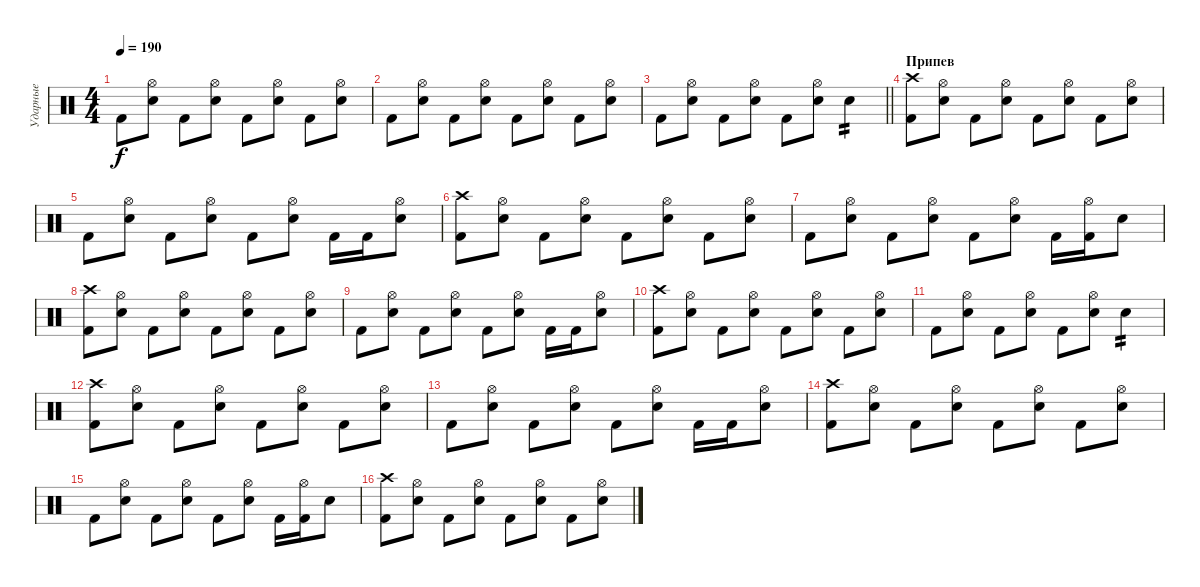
\track ("Ударные" "Ударные") {instrument percussion}
\staff {score}
\articulation defaults
\ts (4 4)
\tempo 190
\clef neutral
\ks c "Kick (hit) 2".8{dy f}
("Hi-Hat (open)" "Electric Snare (hit)").8 "Kick (hit) 2".8 ("Hi-Hat (open)" "Electric Snare (hit)").8 "Kick (hit) 2".8 ("Hi-Hat (open)" "Electric Snare (hit)").8 "Kick (hit) 2".8 ("Hi-Hat (open)" "Electric Snare (hit)").8 |
"Kick (hit) 2".8 ("Hi-Hat (open)" "Electric Snare (hit)").8 "Kick (hit) 2".8 ("Hi-Hat (open)" "Electric Snare (hit)").8 "Kick (hit) 2".8 ("Hi-Hat (open)" "Electric Snare (hit)").8 "Kick (hit) 2".8 ("Hi-Hat (open)" "Electric Snare (hit)").8 |
\barLineRight lightlight "Kick (hit) 2".8
("Hi-Hat (open)" "Electric Snare (hit)").8 "Kick (hit) 2".8 ("Hi-Hat (open)" "Electric Snare (hit)").8 "Kick (hit) 2".8 ("Hi-Hat (open)" "Electric Snare (hit)").8 "Electric Snare (hit)".4{tp 2} |
\section ("" "Припев")
("Crash high (hit)" "Kick (hit) 2").8 ("Hi-Hat (open)" "Electric Snare (hit)").8 "Kick (hit) 2".8 ("Hi-Hat (open)" "Electric Snare (hit)").8 "Kick (hit) 2".8 ("Hi-Hat (open)" "Electric Snare (hit)").8 "Kick (hit) 2".8 ("Hi-Hat (open)" "Electric Snare (hit)").8 |
"Kick (hit) 2".8 ("Hi-Hat (open)" "Electric Snare (hit)").8 "Kick (hit) 2".8 ("Hi-Hat (open)" "Electric Snare (hit)").8 "Kick (hit) 2".8 ("Hi-Hat (open)" "Electric Snare (hit)").8 "Kick (hit) 2".16 "Kick (hit) 2".16 ("Hi-Hat (open)" "Electric Snare (hit)").8 |
("Crash high (hit)" "Kick (hit) 2").8 ("Hi-Hat (open)" "Electric Snare (hit)").8 "Kick (hit) 2".8 ("Hi-Hat (open)" "Electric Snare (hit)").8 "Kick (hit) 2".8 ("Hi-Hat (open)" "Electric Snare (hit)").8 "Kick (hit) 2".8 ("Hi-Hat (open)" "Electric Snare (hit)").8 |
"Kick (hit) 2".8 ("Hi-Hat (open)" "Electric Snare (hit)").8 "Kick (hit) 2".8 ("Hi-Hat (open)" "Electric Snare (hit)").8 "Kick (hit) 2".8 ("Hi-Hat (open)" "Electric Snare (hit)").8 "Kick (hit) 2".16 ("Hi-Hat (open)" "Kick (hit) 2").16 "Electric Snare (hit)".8 |
("Crash high (hit)" "Kick (hit) 2").8 ("Hi-Hat (open)" "Electric Snare (hit)").8 "Kick (hit) 2".8 ("Hi-Hat (open)" "Electric Snare (hit)").8 "Kick (hit) 2".8 ("Hi-Hat (open)" "Electric Snare (hit)").8 "Kick (hit) 2".8 ("Hi-Hat (open)" "Electric Snare (hit)").8 |
"Kick (hit) 2".8 ("Hi-Hat (open)" "Electric Snare (hit)").8 "Kick (hit) 2".8 ("Hi-Hat (open)" "Electric Snare (hit)").8 "Kick (hit) 2".8 ("Hi-Hat (open)" "Electric Snare (hit)").8 "Kick (hit) 2".16 "Kick (hit) 2".16 ("Hi-Hat (open)" "Electric Snare (hit)").8 |
("Crash high (hit)" "Kick (hit) 2").8 ("Hi-Hat (open)" "Electric Snare (hit)").8 "Kick (hit) 2".8 ("Hi-Hat (open)" "Electric Snare (hit)").8 "Kick (hit) 2".8 ("Hi-Hat (open)" "Electric Snare (hit)").8 "Kick (hit) 2".8 ("Hi-Hat (open)" "Electric Snare (hit)").8 |
"Kick (hit) 2".8 ("Hi-Hat (open)" "Electric Snare (hit)").8 "Kick (hit) 2".8 ("Hi-Hat (open)" "Electric Snare (hit)").8 "Kick (hit) 2".8 ("Hi-Hat (open)" "Electric Snare (hit)").8 "Electric Snare (hit)".4{tp 2} |
("Crash high (hit)" "Kick (hit) 2").8 ("Hi-Hat (open)" "Electric Snare (hit)").8 "Kick (hit) 2".8 ("Hi-Hat (open)" "Electric Snare (hit)").8 "Kick (hit) 2".8 ("Hi-Hat (open)" "Electric Snare (hit)").8 "Kick (hit) 2".8 ("Hi-Hat (open)" "Electric Snare (hit)").8 |
"Kick (hit) 2".8 ("Hi-Hat (open)" "Electric Snare (hit)").8 "Kick (hit) 2".8 ("Hi-Hat (open)" "Electric Snare (hit)").8 "Kick (hit) 2".8 ("Hi-Hat (open)" "Electric Snare (hit)").8 "Kick (hit) 2".16 "Kick (hit) 2".16 ("Hi-Hat (open)" "Electric Snare (hit)").8 |
("Crash high (hit)" "Kick (hit) 2").8 ("Hi-Hat (open)" "Electric Snare (hit)").8 "Kick (hit) 2".8 ("Hi-Hat (open)" "Electric Snare (hit)").8 "Kick (hit) 2".8 ("Hi-Hat (open)" "Electric Snare (hit)").8 "Kick (hit) 2".8 ("Hi-Hat (open)" "Electric Snare (hit)").8 |
"Kick (hit) 2".8 ("Hi-Hat (open)" "Electric Snare (hit)").8 "Kick (hit) 2".8 ("Hi-Hat (open)" "Electric Snare (hit)").8 "Kick (hit) 2".8 ("Hi-Hat (open)" "Electric Snare (hit)").8 "Kick (hit) 2".16 ("Hi-Hat (open)" "Kick (hit) 2").16 "Electric Snare (hit)".8 |
("Crash high (hit)" "Kick (hit) 2").8 ("Hi-Hat (open)" "Electric Snare (hit)").8 "Kick (hit) 2".8 ("Hi-Hat (open)" "Electric Snare (hit)").8 "Kick (hit) 2".8 ("Hi-Hat (open)" "Electric Snare (hit)").8 "Kick (hit) 2".8 ("Hi-Hat (open)" "Electric Snare (hit)").8
